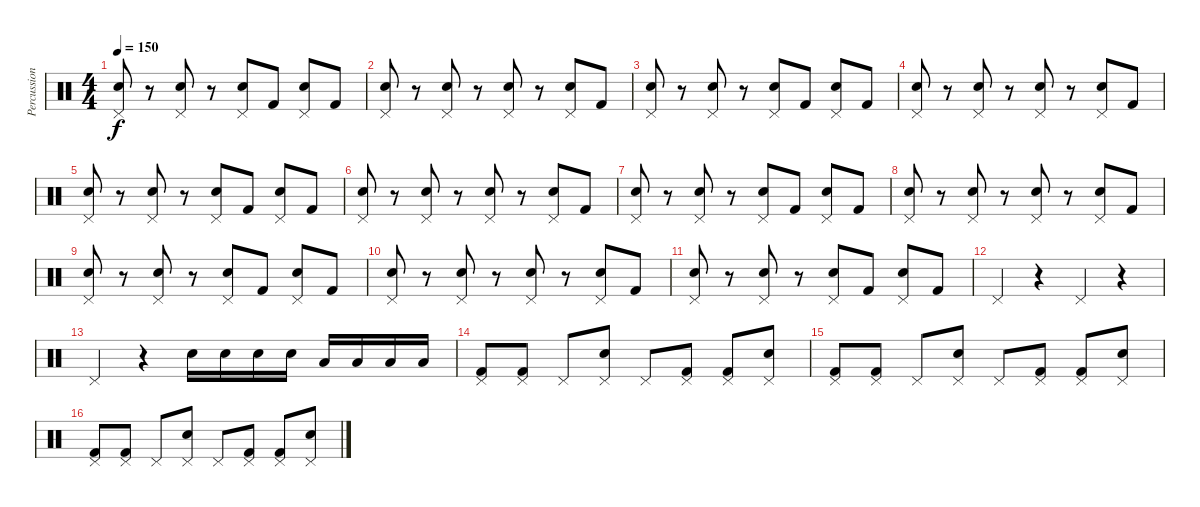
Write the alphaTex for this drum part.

\track ("Percussion" "Percussion") {instrument percussion}
\staff {score}
\articulation defaults
\ts (4 4)
\tempo 150
\clef neutral
\ks c
("Pedal Hi-Hat (hit)" "Electric Snare (hit)").8{dy f} r.8 ("Pedal Hi-Hat (hit)" "Electric Snare (hit)").8 r.8 ("Pedal Hi-Hat (hit)" "Electric Snare (hit)").8 "Kick (hit) 2".8 ("Pedal Hi-Hat (hit)" "Electric Snare (hit)").8 "Kick (hit) 2".8 |
("Pedal Hi-Hat (hit)" "Electric Snare (hit)").8 r.8 ("Pedal Hi-Hat (hit)" "Electric Snare (hit)").8 r.8 ("Pedal Hi-Hat (hit)" "Electric Snare (hit)").8 r.8 ("Pedal Hi-Hat (hit)" "Electric Snare (hit)").8 "Kick (hit) 2".8 |
("Pedal Hi-Hat (hit)" "Electric Snare (hit)").8 r.8 ("Pedal Hi-Hat (hit)" "Electric Snare (hit)").8 r.8 ("Pedal Hi-Hat (hit)" "Electric Snare (hit)").8 "Kick (hit) 2".8 ("Pedal Hi-Hat (hit)" "Electric Snare (hit)").8 "Kick (hit) 2".8 |
("Pedal Hi-Hat (hit)" "Electric Snare (hit)").8 r.8 ("Pedal Hi-Hat (hit)" "Electric Snare (hit)").8 r.8 ("Pedal Hi-Hat (hit)" "Electric Snare (hit)").8 r.8 ("Pedal Hi-Hat (hit)" "Electric Snare (hit)").8 "Kick (hit) 2".8 |
("Pedal Hi-Hat (hit)" "Electric Snare (hit)").8 r.8 ("Pedal Hi-Hat (hit)" "Electric Snare (hit)").8 r.8 ("Pedal Hi-Hat (hit)" "Electric Snare (hit)").8 "Kick (hit) 2".8 ("Pedal Hi-Hat (hit)" "Electric Snare (hit)").8 "Kick (hit) 2".8 |
("Pedal Hi-Hat (hit)" "Electric Snare (hit)").8 r.8 ("Pedal Hi-Hat (hit)" "Electric Snare (hit)").8 r.8 ("Pedal Hi-Hat (hit)" "Electric Snare (hit)").8 r.8 ("Pedal Hi-Hat (hit)" "Electric Snare (hit)").8 "Kick (hit) 2".8 |
("Pedal Hi-Hat (hit)" "Electric Snare (hit)").8 r.8 ("Pedal Hi-Hat (hit)" "Electric Snare (hit)").8 r.8 ("Pedal Hi-Hat (hit)" "Electric Snare (hit)").8 "Kick (hit) 2".8 ("Pedal Hi-Hat (hit)" "Electric Snare (hit)").8 "Kick (hit) 2".8 |
("Pedal Hi-Hat (hit)" "Electric Snare (hit)").8 r.8 ("Pedal Hi-Hat (hit)" "Electric Snare (hit)").8 r.8 ("Pedal Hi-Hat (hit)" "Electric Snare (hit)").8 r.8 ("Pedal Hi-Hat (hit)" "Electric Snare (hit)").8 "Kick (hit) 2".8 |
("Pedal Hi-Hat (hit)" "Electric Snare (hit)").8 r.8 ("Pedal Hi-Hat (hit)" "Electric Snare (hit)").8 r.8 ("Pedal Hi-Hat (hit)" "Electric Snare (hit)").8 "Kick (hit) 2".8 ("Pedal Hi-Hat (hit)" "Electric Snare (hit)").8 "Kick (hit) 2".8 |
("Pedal Hi-Hat (hit)" "Electric Snare (hit)").8 r.8 ("Pedal Hi-Hat (hit)" "Electric Snare (hit)").8 r.8 ("Pedal Hi-Hat (hit)" "Electric Snare (hit)").8 r.8 ("Pedal Hi-Hat (hit)" "Electric Snare (hit)").8 "Kick (hit) 2".8 |
("Pedal Hi-Hat (hit)" "Electric Snare (hit)").8 r.8 ("Pedal Hi-Hat (hit)" "Electric Snare (hit)").8 r.8 ("Pedal Hi-Hat (hit)" "Electric Snare (hit)").8 "Kick (hit) 2".8 ("Pedal Hi-Hat (hit)" "Electric Snare (hit)").8 "Kick (hit) 2".8 |
"Pedal Hi-Hat (hit)".4 r.4 "Pedal Hi-Hat (hit)".4 r.4 |
"Pedal Hi-Hat (hit)".4 r.4 "Electric Snare (hit)".16 "Electric Snare (hit)".16 "Electric Snare (hit)".16 "Electric Snare (hit)".16 "Low Floor Tom (hit)".16 "Low Floor Tom (hit)".16 "Low Floor Tom (hit)".16 "Low Floor Tom (hit)".16 |
("Pedal Hi-Hat (hit)" "Kick (hit) 2").8 ("Pedal Hi-Hat (hit)" "Kick (hit) 2").8 "Pedal Hi-Hat (hit)".8 ("Pedal Hi-Hat (hit)" "Electric Snare (hit)").8 "Pedal Hi-Hat (hit)".8 ("Pedal Hi-Hat (hit)" "Kick (hit) 2").8 ("Pedal Hi-Hat (hit)" "Kick (hit) 2").8 ("Pedal Hi-Hat (hit)" "Electric Snare (hit)").8 |
("Pedal Hi-Hat (hit)" "Kick (hit) 2").8 ("Pedal Hi-Hat (hit)" "Kick (hit) 2").8 "Pedal Hi-Hat (hit)".8 ("Pedal Hi-Hat (hit)" "Electric Snare (hit)").8 "Pedal Hi-Hat (hit)".8 ("Pedal Hi-Hat (hit)" "Kick (hit) 2").8 ("Pedal Hi-Hat (hit)" "Kick (hit) 2").8 ("Pedal Hi-Hat (hit)" "Electric Snare (hit)").8 |
("Pedal Hi-Hat (hit)" "Kick (hit) 2").8 ("Pedal Hi-Hat (hit)" "Kick (hit) 2").8 "Pedal Hi-Hat (hit)".8 ("Pedal Hi-Hat (hit)" "Electric Snare (hit)").8 "Pedal Hi-Hat (hit)".8 ("Pedal Hi-Hat (hit)" "Kick (hit) 2").8 ("Pedal Hi-Hat (hit)" "Kick (hit) 2").8 ("Pedal Hi-Hat (hit)" "Electric Snare (hit)").8
